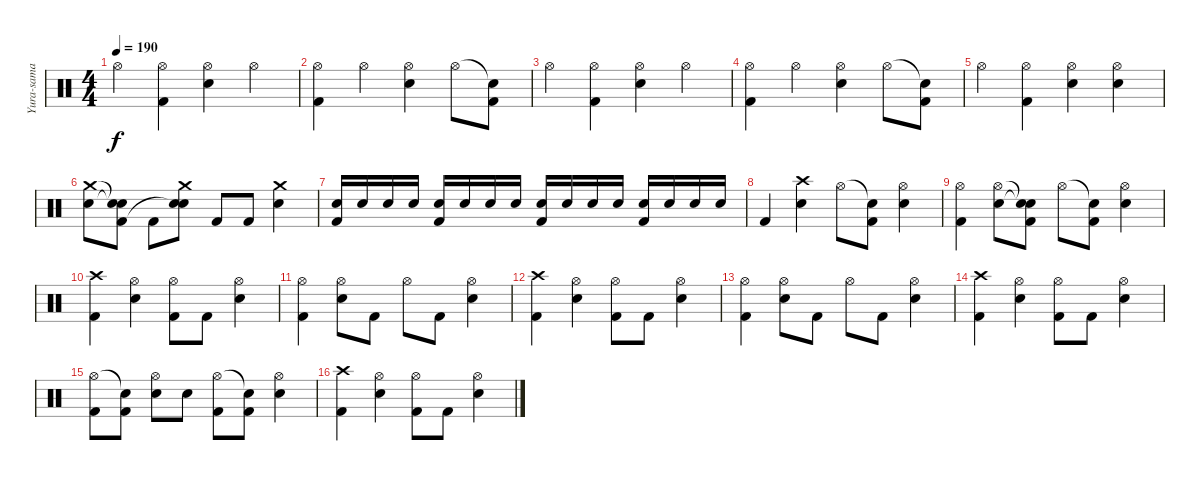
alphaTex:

\track ("Yura-sama" "Yura-sama") {instrument percussion}
\staff {score}
\articulation defaults
\ts (4 4)
\tempo 190
\clef neutral
\ks c "Hi-Hat (open)".4{dy f}
("Hi-Hat (open)" "Kick (hit) 2").4 ("Hi-Hat (open)" "Electric Snare (hit)").4 "Hi-Hat (open)".4 |
("Hi-Hat (open)" "Kick (hit) 2").4 "Hi-Hat (open)".4 ("Hi-Hat (open)" "Electric Snare (hit)").4 "Hi-Hat (open)".8 ("Snare (hit)"{t} "Kick (hit) 2").8 |
"Hi-Hat (open)".4 ("Hi-Hat (open)" "Kick (hit) 2").4 ("Hi-Hat (open)" "Electric Snare (hit)").4 "Hi-Hat (open)".4 |
("Hi-Hat (open)" "Kick (hit) 2").4 "Hi-Hat (open)".4 ("Hi-Hat (open)" "Electric Snare (hit)").4 "Hi-Hat (open)".8 ("Snare (hit)"{t} "Kick (hit) 2").8 |
"Hi-Hat (open)".4 ("Hi-Hat (open)" "Kick (hit) 2").4 ("Hi-Hat (open)" "Electric Snare (hit)").4 ("Hi-Hat (open)" "Electric Snare (hit)").4 |
("Crash medium (hit)" "Electric Snare (hit)").8 ("Snare (hit)"{t} "Snare (hit)"{t} "Kick (hit) 2").8 "Kick (hit) 2".8 ("Crash medium (hit)" "Electric Snare (hit)" "Snare (hit)"{t}).8 "Kick (hit) 2".8 "Kick (hit) 2".8 ("Crash medium (hit)" "Electric Snare (hit)").4 |
("Electric Snare (hit)" "Kick (hit) 2").16 "Electric Snare (hit)".16 "Electric Snare (hit)".16 "Electric Snare (hit)".16 ("Electric Snare (hit)" "Kick (hit) 2").16 "Electric Snare (hit)".16 "Electric Snare (hit)".16 "Electric Snare (hit)".16 ("Electric Snare (hit)" "Kick (hit) 2").16 "Electric Snare (hit)".16 "Electric Snare (hit)".16 "Electric Snare (hit)".16 ("Electric Snare (hit)" "Kick (hit) 2").16 "Electric Snare (hit)".16 "Electric Snare (hit)".16 "Electric Snare (hit)".16 |
"Kick (hit) 2".4 ("Crash high (hit)" "Electric Snare (hit)").4 "Hi-Hat (open)".8 ("Snare (hit)"{t} "Kick (hit) 2").8 ("Hi-Hat (open)" "Electric Snare (hit)").4 |
("Hi-Hat (open)" "Kick (hit) 2").4 ("Hi-Hat (open)" "Electric Snare (hit)").8 ("Snare (hit)"{t} "Snare (hit)"{t} "Kick (hit) 2").8 "Hi-Hat (open)".8 ("Snare (hit)"{t} "Kick (hit) 2").8 ("Hi-Hat (open)" "Electric Snare (hit)").4 |
("Crash high (hit)" "Kick (hit) 2").4 ("Hi-Hat (open)" "Electric Snare (hit)").4 ("Hi-Hat (open)" "Kick (hit) 2").8 "Kick (hit) 2".8 ("Hi-Hat (open)" "Electric Snare (hit)").4 |
("Hi-Hat (open)" "Kick (hit) 2").4 ("Hi-Hat (open)" "Electric Snare (hit)").8 "Kick (hit) 2".8 "Hi-Hat (open)".8 "Kick (hit) 2".8 ("Hi-Hat (open)" "Electric Snare (hit)").4 |
("Crash high (hit)" "Kick (hit) 2").4 ("Hi-Hat (open)" "Electric Snare (hit)").4 ("Hi-Hat (open)" "Kick (hit) 2").8 "Kick (hit) 2".8 ("Hi-Hat (open)" "Electric Snare (hit)").4 |
("Hi-Hat (open)" "Kick (hit) 2").4 ("Hi-Hat (open)" "Electric Snare (hit)").8 "Kick (hit) 2".8 "Hi-Hat (open)".8 "Kick (hit) 2".8 ("Hi-Hat (open)" "Electric Snare (hit)").4 |
("Crash high (hit)" "Kick (hit) 2").4 ("Hi-Hat (open)" "Electric Snare (hit)").4 ("Hi-Hat (open)" "Kick (hit) 2").8 "Kick (hit) 2".8 ("Hi-Hat (open)" "Electric Snare (hit)").4 |
("Hi-Hat (open)" "Kick (hit) 2").8 ("Snare (hit)"{t} "Kick (hit) 2").8 ("Hi-Hat (open)" "Electric Snare (hit)").8 "Electric Snare (hit)".8 ("Hi-Hat (open)" "Kick (hit) 2").8 ("Snare (hit)"{t} "Kick (hit) 2").8 ("Hi-Hat (open)" "Electric Snare (hit)").4 |
("Crash high (hit)" "Kick (hit) 2").4 ("Hi-Hat (open)" "Electric Snare (hit)").4 ("Hi-Hat (open)" "Kick (hit) 2").8 "Kick (hit) 2".8 ("Hi-Hat (open)" "Electric Snare (hit)").4
